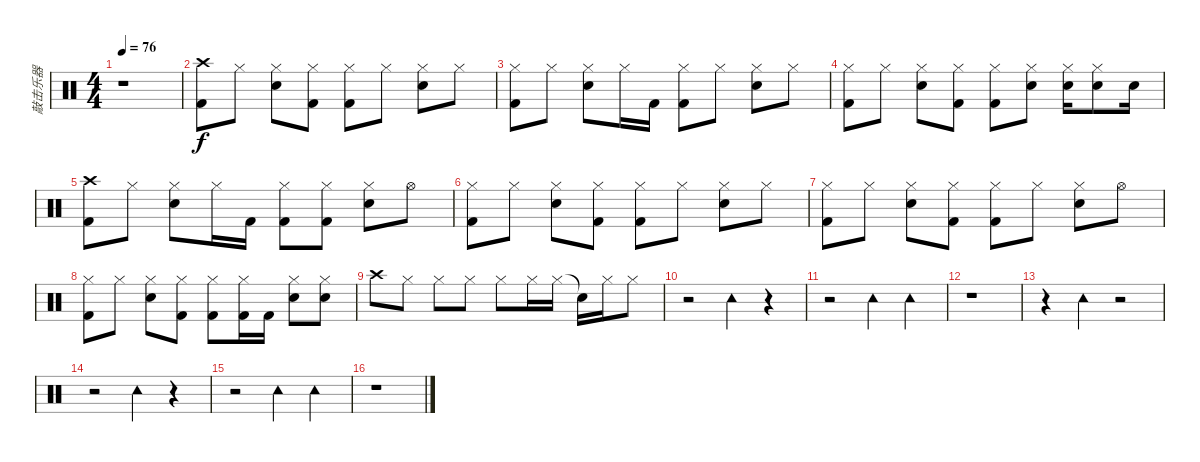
\track ("敲击乐器" "敲击乐器") {instrument percussion}
\staff {score}
\articulation defaults
\ts (4 4)
\tempo 76
\clef neutral
\ks c
r.1{dy f} |
("Crash high (hit)" "Kick (hit) 2").8 "Hi-Hat (closed)".8 ("Hi-Hat (closed)" "Snare (hit) 2").8 ("Hi-Hat (closed)" "Kick (hit) 2").8 ("Hi-Hat (closed)" "Kick (hit) 2").8 "Hi-Hat (closed)".8 ("Hi-Hat (closed)" "Snare (hit) 2").8 "Hi-Hat (closed)".8 |
("Hi-Hat (closed)" "Kick (hit) 2").8 "Hi-Hat (closed)".8 ("Hi-Hat (closed)" "Snare (hit) 2").8 "Hi-Hat (closed)".16 "Kick (hit) 2".16 ("Hi-Hat (closed)" "Kick (hit) 2").8 "Hi-Hat (closed)".8 ("Hi-Hat (closed)" "Snare (hit) 2").8 "Hi-Hat (closed)".8 |
("Hi-Hat (closed)" "Kick (hit) 2").8 "Hi-Hat (closed)".8 ("Hi-Hat (closed)" "Snare (hit) 2").8 ("Hi-Hat (closed)" "Kick (hit) 2").8 ("Hi-Hat (closed)" "Kick (hit) 2").8 ("Hi-Hat (closed)" "Snare (hit) 2").8 ("Hi-Hat (closed)" "Snare (hit) 2").16 ("Hi-Hat (closed)" "Snare (hit) 2").8 "Snare (hit) 2".16 |
("Crash high (hit)" "Kick (hit) 2").8 "Hi-Hat (closed)".8 ("Hi-Hat (closed)" "Snare (hit) 2").8 "Hi-Hat (closed)".16 "Kick (hit) 2".16 ("Hi-Hat (closed)" "Kick (hit) 2").8 ("Hi-Hat (closed)" "Kick (hit) 2").8 ("Hi-Hat (closed)" "Snare (hit) 2").8 "Hi-Hat (open)".8 |
("Hi-Hat (closed)" "Kick (hit) 2").8 "Hi-Hat (closed)".8 ("Hi-Hat (closed)" "Snare (hit) 2").8 ("Hi-Hat (closed)" "Kick (hit) 2").8 ("Hi-Hat (closed)" "Kick (hit) 2").8 "Hi-Hat (closed)".8 ("Hi-Hat (closed)" "Snare (hit) 2").8 "Hi-Hat (closed)".8 |
("Hi-Hat (closed)" "Kick (hit) 2").8 "Hi-Hat (closed)".8 ("Hi-Hat (closed)" "Snare (hit) 2").8 ("Hi-Hat (closed)" "Kick (hit) 2").8 ("Hi-Hat (closed)" "Kick (hit) 2").8 "Hi-Hat (closed)".8 ("Hi-Hat (closed)" "Snare (hit) 2").8 "Hi-Hat (open)".8 |
("Hi-Hat (closed)" "Kick (hit) 2").8 "Hi-Hat (closed)".8 ("Hi-Hat (closed)" "Snare (hit) 2").8 ("Hi-Hat (closed)" "Kick (hit) 2").8 ("Hi-Hat (closed)" "Kick (hit) 2").8 ("Hi-Hat (closed)" "Kick (hit) 2").16 "Kick (hit) 2".16 ("Hi-Hat (closed)" "Snare (hit) 2").8 ("Hi-Hat (closed)" "Snare (hit) 2").8 |
"Crash high (hit)".8 "Hi-Hat (closed)".8 "Hi-Hat (closed)".8 "Hi-Hat (closed)".8 "Hi-Hat (closed)".8 "Hi-Hat (closed)".16 "Hi-Hat (closed)".16 "Snare (hit)"{t}.16 "Hi-Hat (closed)".16 "Hi-Hat (closed)".8 |
r.2 "Tambourine (hit)".4 r.4 |
r.2 "Tambourine (hit)".4 "Tambourine (hit)".4 |
r.1 |
r.4 "Tambourine (hit)".4 r.2 |
r.2 "Tambourine (hit)".4 r.4 |
r.2 "Tambourine (hit)".4 "Tambourine (hit)".4 |
r.1
